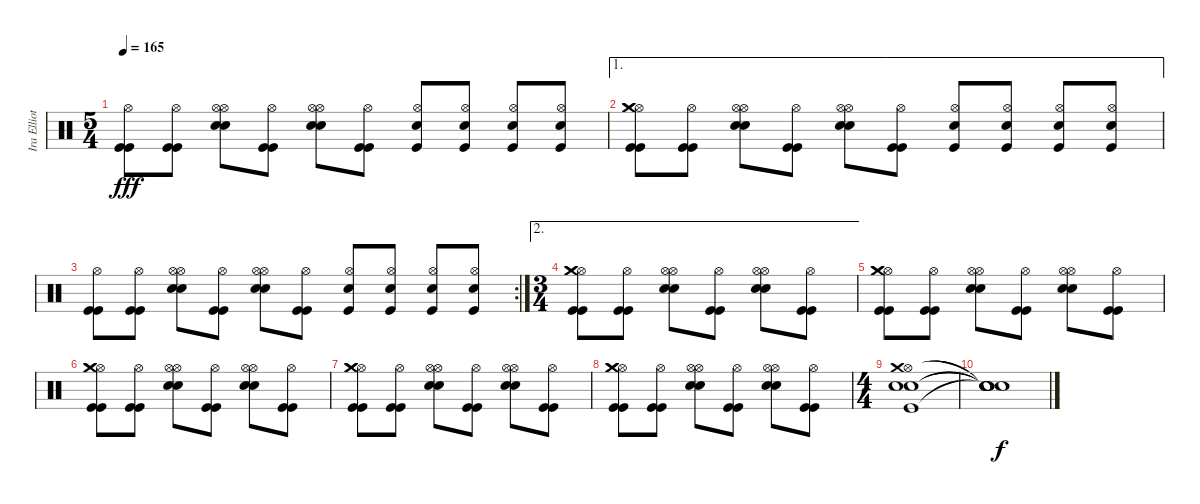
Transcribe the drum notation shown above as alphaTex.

\track ("Ira Elliott (drums)" "Ira Elliot") {instrument percussion}
\staff {score}
\articulation defaults
\ts (5 4)
\tempo 165
\clef neutral
\ks c
("Kick (hit)" "Kick (hit)" "Hi-Hat (open)").8{dy fff} ("Kick (hit)" "Kick (hit)" "Hi-Hat (open)").8 ("Snare (hit) 2" "Hi-Hat (open)" "Electric Snare (hit)" "Hi-Hat (open)").8 ("Kick (hit)" "Kick (hit)" "Hi-Hat (open)").8 ("Snare (hit) 2" "Hi-Hat (open)" "Electric Snare (hit)" "Hi-Hat (open)").8 ("Kick (hit)" "Kick (hit)" "Hi-Hat (open)").8 ("Kick (hit)" "Snare (hit) 2" "Hi-Hat (open)").8 ("Kick (hit)" "Snare (hit) 2" "Hi-Hat (open)").8 ("Kick (hit)" "Snare (hit) 2" "Hi-Hat (open)").8 ("Kick (hit)" "Snare (hit) 2" "Hi-Hat (open)").8 |
\ae 1
("Kick (hit)" "Kick (hit)" "Hi-Hat (open)" "Crash medium (hit)" "Crash medium (hit)").8 ("Kick (hit)" "Kick (hit)" "Hi-Hat (open)").8 ("Snare (hit) 2" "Hi-Hat (open)" "Electric Snare (hit)" "Hi-Hat (open)").8 ("Kick (hit)" "Kick (hit)" "Hi-Hat (open)").8 ("Snare (hit) 2" "Hi-Hat (open)" "Electric Snare (hit)" "Hi-Hat (open)").8 ("Kick (hit)" "Kick (hit)" "Hi-Hat (open)").8 ("Kick (hit)" "Snare (hit) 2" "Hi-Hat (open)").8 ("Kick (hit)" "Snare (hit) 2" "Hi-Hat (open)").8 ("Kick (hit)" "Snare (hit) 2" "Hi-Hat (open)").8 ("Kick (hit)" "Snare (hit) 2" "Hi-Hat (open)").8 |
\rc 2
("Kick (hit)" "Kick (hit)" "Hi-Hat (open)").8 ("Kick (hit)" "Kick (hit)" "Hi-Hat (open)").8 ("Snare (hit) 2" "Hi-Hat (open)" "Electric Snare (hit)" "Hi-Hat (open)").8 ("Kick (hit)" "Kick (hit)" "Hi-Hat (open)").8 ("Snare (hit) 2" "Hi-Hat (open)" "Electric Snare (hit)" "Hi-Hat (open)").8 ("Kick (hit)" "Kick (hit)" "Hi-Hat (open)").8 ("Kick (hit)" "Snare (hit) 2" "Hi-Hat (open)").8 ("Kick (hit)" "Snare (hit) 2" "Hi-Hat (open)").8 ("Kick (hit)" "Snare (hit) 2" "Hi-Hat (open)").8 ("Kick (hit)" "Snare (hit) 2" "Hi-Hat (open)").8 |
\ae 2
\ts (3 4)
("Kick (hit)" "Kick (hit)" "Hi-Hat (open)" "Crash medium (hit)" "Crash medium (hit)").8 ("Kick (hit)" "Kick (hit)" "Hi-Hat (open)").8 ("Snare (hit) 2" "Hi-Hat (open)" "Electric Snare (hit)" "Hi-Hat (open)").8 ("Kick (hit)" "Kick (hit)" "Hi-Hat (open)").8 ("Snare (hit) 2" "Hi-Hat (open)" "Electric Snare (hit)" "Hi-Hat (open)").8 ("Kick (hit)" "Kick (hit)" "Hi-Hat (open)").8 |
("Kick (hit)" "Kick (hit)" "Hi-Hat (open)" "Crash medium (hit)" "Crash medium (hit)").8 ("Kick (hit)" "Kick (hit)" "Hi-Hat (open)").8 ("Snare (hit) 2" "Hi-Hat (open)" "Electric Snare (hit)" "Hi-Hat (open)").8 ("Kick (hit)" "Kick (hit)" "Hi-Hat (open)").8 ("Snare (hit) 2" "Hi-Hat (open)" "Electric Snare (hit)" "Hi-Hat (open)").8 ("Kick (hit)" "Kick (hit)" "Hi-Hat (open)").8 |
("Kick (hit)" "Kick (hit)" "Hi-Hat (open)" "Crash medium (hit)" "Crash medium (hit)").8 ("Kick (hit)" "Kick (hit)" "Hi-Hat (open)").8 ("Snare (hit) 2" "Hi-Hat (open)" "Electric Snare (hit)" "Hi-Hat (open)").8 ("Kick (hit)" "Kick (hit)" "Hi-Hat (open)").8 ("Snare (hit) 2" "Hi-Hat (open)" "Electric Snare (hit)" "Hi-Hat (open)").8 ("Kick (hit)" "Kick (hit)" "Hi-Hat (open)").8 |
("Kick (hit)" "Kick (hit)" "Hi-Hat (open)" "Crash medium (hit)" "Crash medium (hit)").8 ("Kick (hit)" "Kick (hit)" "Hi-Hat (open)").8 ("Snare (hit) 2" "Hi-Hat (open)" "Electric Snare (hit)" "Hi-Hat (open)").8 ("Kick (hit)" "Kick (hit)" "Hi-Hat (open)").8 ("Snare (hit) 2" "Hi-Hat (open)" "Electric Snare (hit)" "Hi-Hat (open)").8 ("Kick (hit)" "Kick (hit)" "Hi-Hat (open)").8 |
("Kick (hit)" "Kick (hit)" "Hi-Hat (open)" "Crash medium (hit)" "Crash medium (hit)").8 ("Kick (hit)" "Kick (hit)" "Hi-Hat (open)").8 ("Snare (hit) 2" "Hi-Hat (open)" "Electric Snare (hit)" "Hi-Hat (open)").8 ("Kick (hit)" "Kick (hit)" "Hi-Hat (open)").8 ("Snare (hit) 2" "Hi-Hat (open)" "Electric Snare (hit)" "Hi-Hat (open)").8 ("Kick (hit)" "Kick (hit)" "Hi-Hat (open)").8 |
\ts (4 4)
("Snare (hit) 2" "Electric Snare (hit)" "Hi-Hat (open)" "Kick (hit)" "Crash medium (hit)").1 |
("Snare (hit)"{t} "Snare (hit)"{t} "Snare (hit)"{t} "Snare (hit)"{t} "Snare (hit)"{t}).1{dy f}
